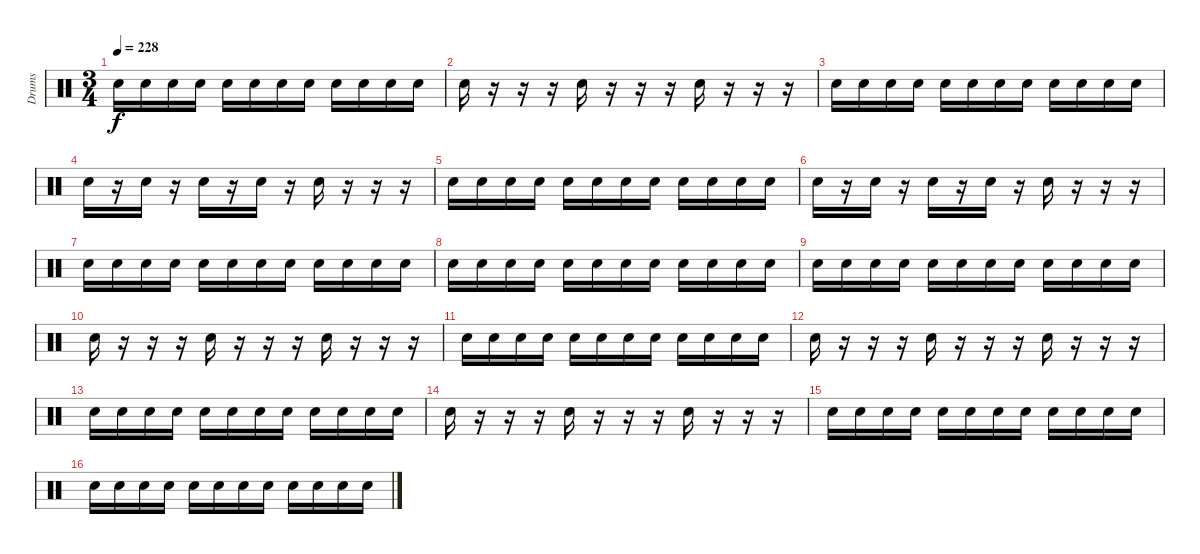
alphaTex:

\track ("Drums" "Drums") {instrument percussion}
\staff {score}
\articulation defaults
\ts (3 4)
\tempo 228
\clef neutral
\ks c "Snare (hit) 2".16{dy f} "Snare (hit) 2".16 "Snare (hit) 2".16 "Snare (hit) 2".16 "Snare (hit) 2".16 "Snare (hit) 2".16 "Snare (hit) 2".16 "Snare (hit) 2".16 "Snare (hit) 2".16 "Snare (hit) 2".16 "Snare (hit) 2".16 "Snare (hit) 2".16
|
"Snare (hit) 2".16 r.16 r.16 r.16 "Snare (hit) 2".16 r.16 r.16 r.16 "Snare (hit) 2".16 r.16 r.16 r.16 |
"Snare (hit) 2".16 "Snare (hit) 2".16 "Snare (hit) 2".16 "Snare (hit) 2".16 "Snare (hit) 2".16 "Snare (hit) 2".16 "Snare (hit) 2".16 "Snare (hit) 2".16 "Snare (hit) 2".16 "Snare (hit) 2".16 "Snare (hit) 2".16 "Snare (hit) 2".16 |
"Snare (hit) 2".16 r.16 "Snare (hit) 2".16 r.16 "Snare (hit) 2".16 r.16 "Snare (hit) 2".16 r.16 "Snare (hit) 2".16 r.16 r.16 r.16 |
"Snare (hit) 2".16 "Snare (hit) 2".16 "Snare (hit) 2".16 "Snare (hit) 2".16 "Snare (hit) 2".16 "Snare (hit) 2".16 "Snare (hit) 2".16 "Snare (hit) 2".16 "Snare (hit) 2".16 "Snare (hit) 2".16 "Snare (hit) 2".16 "Snare (hit) 2".16 |
"Snare (hit) 2".16 r.16 "Snare (hit) 2".16 r.16 "Snare (hit) 2".16 r.16 "Snare (hit) 2".16 r.16 "Snare (hit) 2".16 r.16 r.16 r.16 |
"Snare (hit) 2".16 "Snare (hit) 2".16 "Snare (hit) 2".16 "Snare (hit) 2".16 "Snare (hit) 2".16 "Snare (hit) 2".16 "Snare (hit) 2".16 "Snare (hit) 2".16 "Snare (hit) 2".16 "Snare (hit) 2".16 "Snare (hit) 2".16 "Snare (hit) 2".16 |
"Snare (hit) 2".16 "Snare (hit) 2".16 "Snare (hit) 2".16 "Snare (hit) 2".16 "Snare (hit) 2".16 "Snare (hit) 2".16 "Snare (hit) 2".16 "Snare (hit) 2".16 "Snare (hit) 2".16 "Snare (hit) 2".16 "Snare (hit) 2".16 "Snare (hit) 2".16 |
"Snare (hit) 2".16 "Snare (hit) 2".16 "Snare (hit) 2".16 "Snare (hit) 2".16 "Snare (hit) 2".16 "Snare (hit) 2".16 "Snare (hit) 2".16 "Snare (hit) 2".16 "Snare (hit) 2".16 "Snare (hit) 2".16 "Snare (hit) 2".16 "Snare (hit) 2".16 |
"Snare (hit) 2".16 r.16 r.16 r.16 "Snare (hit) 2".16 r.16 r.16 r.16 "Snare (hit) 2".16 r.16 r.16 r.16 |
"Snare (hit) 2".16 "Snare (hit) 2".16 "Snare (hit) 2".16 "Snare (hit) 2".16 "Snare (hit) 2".16 "Snare (hit) 2".16 "Snare (hit) 2".16 "Snare (hit) 2".16 "Snare (hit) 2".16 "Snare (hit) 2".16 "Snare (hit) 2".16 "Snare (hit) 2".16 |
"Snare (hit) 2".16 r.16 r.16 r.16 "Snare (hit) 2".16 r.16 r.16 r.16 "Snare (hit) 2".16 r.16 r.16 r.16 |
"Snare (hit) 2".16 "Snare (hit) 2".16 "Snare (hit) 2".16 "Snare (hit) 2".16 "Snare (hit) 2".16 "Snare (hit) 2".16 "Snare (hit) 2".16 "Snare (hit) 2".16 "Snare (hit) 2".16 "Snare (hit) 2".16 "Snare (hit) 2".16 "Snare (hit) 2".16 |
"Snare (hit) 2".16 r.16 r.16 r.16 "Snare (hit) 2".16 r.16 r.16 r.16 "Snare (hit) 2".16 r.16 r.16 r.16 |
"Snare (hit) 2".16 "Snare (hit) 2".16 "Snare (hit) 2".16 "Snare (hit) 2".16 "Snare (hit) 2".16 "Snare (hit) 2".16 "Snare (hit) 2".16 "Snare (hit) 2".16 "Snare (hit) 2".16 "Snare (hit) 2".16 "Snare (hit) 2".16 "Snare (hit) 2".16 |
"Snare (hit) 2".16 "Snare (hit) 2".16 "Snare (hit) 2".16 "Snare (hit) 2".16 "Snare (hit) 2".16 "Snare (hit) 2".16 "Snare (hit) 2".16 "Snare (hit) 2".16 "Snare (hit) 2".16 "Snare (hit) 2".16 "Snare (hit) 2".16 "Snare (hit) 2".16
